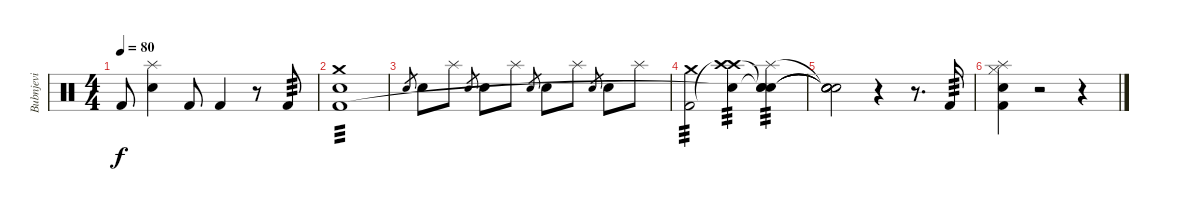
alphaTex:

\track ("Bubnjevi" "Bubnjevi") {instrument percussion}
\staff {score}
\articulation defaults
\ts (4 4)
\tempo 80
\clef neutral
\ks c "Kick (hit) 2".8{dy f}
("Splash (hit)" "Electric Snare (hit)").4 "Kick (hit) 2".8 "Kick (hit) 2".4 r.8 "Kick (hit) 2".8{tp 3} |
("Crash medium (hit)" "Electric Snare (hit)" "Kick (hit) 2").1{tp 3} |
"Electric Snare (hit)".8{gr} "Electric Snare (hit)".8 "Splash (hit)".8 "Electric Snare (hit)".8{gr} "Electric Snare (hit)".8 "Splash (hit)".8 "Electric Snare (hit)".8{gr} "Electric Snare (hit)".8 "Splash (hit)".8 "Electric Snare (hit)".8{gr} "Electric Snare (hit)".8 "Splash (hit)".8 |
("Crash medium (hit)" "Kick (hit) 2").2{tp 3} ("Crash high (hit)" "Crash high (hit)"{t} "Snare (hit)"{t}).4{tp 3} ("Splash (hit)" "Snare (hit)"{t} "Snare (hit)"{t} "Snare (hit)").4{tp 3} |
("Snare (hit)"{t} "Snare (hit)"{t} "Snare (hit)"{t} "Snare (hit)"{t}).2 r.4 r.8{d} "Kick (hit) 2".16{tp 3} |
("Splash (hit)" "Electric Snare (hit)" "Hi-Hat (closed)" "Kick (hit) 2").4 r.2 r.4
